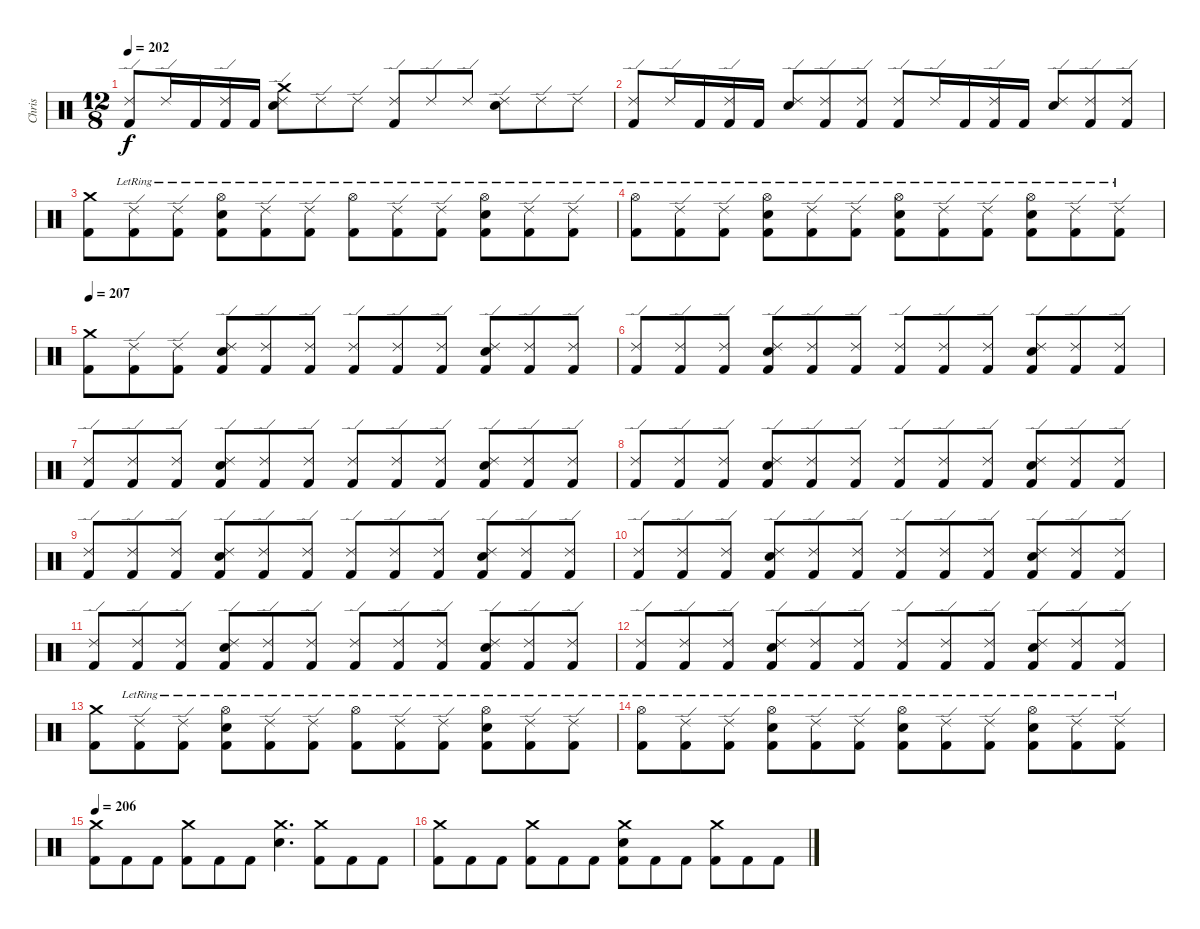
\track ("Chris" "Chris") {instrument percussion}
\staff {score}
\articulation defaults
\ts (12 8)
\tempo 202
\clef neutral
\ks c
("Ride (edge) 2" "Kick (hit) 2").8{dy f} "Ride (edge) 2".16 "Kick (hit) 2".16 ("Ride (edge) 2" "Kick (hit) 2").16 "Kick (hit) 2".16 ("Ride (edge) 2" "Electric Snare (hit)" "Crash medium (hit)").8 "Ride (edge) 2".8 "Ride (edge) 2".8 ("Ride (edge) 2" "Kick (hit) 2").8 "Ride (edge) 2".8 "Ride (edge) 2".8 ("Ride (edge) 2" "Electric Snare (hit)").8 "Ride (edge) 2".8 "Ride (edge) 2".8 |
("Ride (edge) 2" "Kick (hit) 2").8 "Ride (edge) 2".16 "Kick (hit) 2".16 ("Ride (edge) 2" "Kick (hit) 2").16 "Kick (hit) 2".16 ("Ride (edge) 2" "Electric Snare (hit)").8 ("Ride (edge) 2" "Kick (hit) 2").8 ("Ride (edge) 2" "Kick (hit) 2").8 ("Ride (edge) 2" "Kick (hit) 2").8 "Ride (edge) 2".16 "Kick (hit) 2".16 ("Ride (edge) 2" "Kick (hit) 2").16 "Kick (hit) 2".16 ("Ride (edge) 2" "Electric Snare (hit)").8 ("Ride (edge) 2" "Kick (hit) 2").8 ("Ride (edge) 2" "Kick (hit) 2").8 |
("Crash medium (hit)" "Kick (hit) 2").8 ("Ride (edge) 2"{lr} "Kick (hit) 2").8 ("Ride (edge) 2"{lr} "Kick (hit) 2").8 ("Hi-Hat (open)"{lr} "Kick (hit) 2" "Electric Snare (hit)").8 ("Ride (edge) 2"{lr} "Kick (hit) 2").8 ("Ride (edge) 2"{lr} "Kick (hit) 2").8 ("Hi-Hat (open)"{lr} "Kick (hit) 2").8 ("Ride (edge) 2"{lr} "Kick (hit) 2").8 ("Ride (edge) 2"{lr} "Kick (hit) 2").8 ("Hi-Hat (open)"{lr} "Kick (hit) 2" "Electric Snare (hit)").8 ("Ride (edge) 2"{lr} "Kick (hit) 2").8 ("Ride (edge) 2"{lr} "Kick (hit) 2").8 |
("Hi-Hat (open)"{lr} "Kick (hit) 2").8 ("Ride (edge) 2"{lr} "Kick (hit) 2").8 ("Ride (edge) 2"{lr} "Kick (hit) 2").8 ("Hi-Hat (open)"{lr} "Kick (hit) 2" "Electric Snare (hit)").8 ("Ride (edge) 2"{lr} "Kick (hit) 2").8 ("Ride (edge) 2"{lr} "Kick (hit) 2").8 ("Hi-Hat (open)"{lr} "Kick (hit) 2" "Electric Snare (hit)").8 ("Ride (edge) 2"{lr} "Kick (hit) 2").8 ("Ride (edge) 2"{lr} "Kick (hit) 2").8 ("Hi-Hat (open)"{lr} "Kick (hit) 2" "Electric Snare (hit)").8 ("Ride (edge) 2"{lr} "Kick (hit) 2").8 ("Ride (edge) 2"{lr} "Kick (hit) 2").8 |
\tempo 207
("Crash medium (hit)" "Kick (hit) 2").8 ("Ride (edge) 2" "Kick (hit) 2").8 ("Ride (edge) 2" "Kick (hit) 2").8 ("Ride (edge) 2" "Kick (hit) 2" "Electric Snare (hit)").8 ("Ride (edge) 2" "Kick (hit) 2").8 ("Ride (edge) 2" "Kick (hit) 2").8 ("Ride (edge) 2" "Kick (hit) 2").8 ("Ride (edge) 2" "Kick (hit) 2").8 ("Ride (edge) 2" "Kick (hit) 2").8 ("Ride (edge) 2" "Kick (hit) 2" "Electric Snare (hit)").8 ("Ride (edge) 2" "Kick (hit) 2").8 ("Ride (edge) 2" "Kick (hit) 2").8 |
("Ride (edge) 2" "Kick (hit) 2").8 ("Ride (edge) 2" "Kick (hit) 2").8 ("Ride (edge) 2" "Kick (hit) 2").8 ("Ride (edge) 2" "Kick (hit) 2" "Electric Snare (hit)").8 ("Ride (edge) 2" "Kick (hit) 2").8 ("Ride (edge) 2" "Kick (hit) 2").8 ("Ride (edge) 2" "Kick (hit) 2").8 ("Ride (edge) 2" "Kick (hit) 2").8 ("Ride (edge) 2" "Kick (hit) 2").8 ("Ride (edge) 2" "Kick (hit) 2" "Electric Snare (hit)").8 ("Ride (edge) 2" "Kick (hit) 2").8 ("Ride (edge) 2" "Kick (hit) 2").8 |
("Ride (edge) 2" "Kick (hit) 2").8 ("Ride (edge) 2" "Kick (hit) 2").8 ("Ride (edge) 2" "Kick (hit) 2").8 ("Ride (edge) 2" "Kick (hit) 2" "Electric Snare (hit)").8 ("Ride (edge) 2" "Kick (hit) 2").8 ("Ride (edge) 2" "Kick (hit) 2").8 ("Ride (edge) 2" "Kick (hit) 2").8 ("Ride (edge) 2" "Kick (hit) 2").8 ("Ride (edge) 2" "Kick (hit) 2").8 ("Ride (edge) 2" "Kick (hit) 2" "Electric Snare (hit)").8 ("Ride (edge) 2" "Kick (hit) 2").8 ("Ride (edge) 2" "Kick (hit) 2").8 |
("Ride (edge) 2" "Kick (hit) 2").8 ("Ride (edge) 2" "Kick (hit) 2").8 ("Ride (edge) 2" "Kick (hit) 2").8 ("Ride (edge) 2" "Kick (hit) 2" "Electric Snare (hit)").8 ("Ride (edge) 2" "Kick (hit) 2").8 ("Ride (edge) 2" "Kick (hit) 2").8 ("Ride (edge) 2" "Kick (hit) 2").8 ("Ride (edge) 2" "Kick (hit) 2").8 ("Ride (edge) 2" "Kick (hit) 2").8 ("Ride (edge) 2" "Kick (hit) 2" "Electric Snare (hit)").8 ("Ride (edge) 2" "Kick (hit) 2").8 ("Ride (edge) 2" "Kick (hit) 2").8 |
("Ride (edge) 2" "Kick (hit) 2").8 ("Ride (edge) 2" "Kick (hit) 2").8 ("Ride (edge) 2" "Kick (hit) 2").8 ("Ride (edge) 2" "Kick (hit) 2" "Electric Snare (hit)").8 ("Ride (edge) 2" "Kick (hit) 2").8 ("Ride (edge) 2" "Kick (hit) 2").8 ("Ride (edge) 2" "Kick (hit) 2").8 ("Ride (edge) 2" "Kick (hit) 2").8 ("Ride (edge) 2" "Kick (hit) 2").8 ("Ride (edge) 2" "Kick (hit) 2" "Electric Snare (hit)").8 ("Ride (edge) 2" "Kick (hit) 2").8 ("Ride (edge) 2" "Kick (hit) 2").8 |
("Ride (edge) 2" "Kick (hit) 2").8 ("Ride (edge) 2" "Kick (hit) 2").8 ("Ride (edge) 2" "Kick (hit) 2").8 ("Ride (edge) 2" "Kick (hit) 2" "Electric Snare (hit)").8 ("Ride (edge) 2" "Kick (hit) 2").8 ("Ride (edge) 2" "Kick (hit) 2").8 ("Ride (edge) 2" "Kick (hit) 2").8 ("Ride (edge) 2" "Kick (hit) 2").8 ("Ride (edge) 2" "Kick (hit) 2").8 ("Ride (edge) 2" "Kick (hit) 2" "Electric Snare (hit)").8 ("Ride (edge) 2" "Kick (hit) 2").8 ("Ride (edge) 2" "Kick (hit) 2").8 |
("Ride (edge) 2" "Kick (hit) 2").8 ("Ride (edge) 2" "Kick (hit) 2").8 ("Ride (edge) 2" "Kick (hit) 2").8 ("Ride (edge) 2" "Kick (hit) 2" "Electric Snare (hit)").8 ("Ride (edge) 2" "Kick (hit) 2").8 ("Ride (edge) 2" "Kick (hit) 2").8 ("Ride (edge) 2" "Kick (hit) 2").8 ("Ride (edge) 2" "Kick (hit) 2").8 ("Ride (edge) 2" "Kick (hit) 2").8 ("Ride (edge) 2" "Kick (hit) 2" "Electric Snare (hit)").8 ("Ride (edge) 2" "Kick (hit) 2").8 ("Ride (edge) 2" "Kick (hit) 2").8 |
("Ride (edge) 2" "Kick (hit) 2").8 ("Ride (edge) 2" "Kick (hit) 2").8 ("Ride (edge) 2" "Kick (hit) 2").8 ("Ride (edge) 2" "Kick (hit) 2" "Electric Snare (hit)").8 ("Ride (edge) 2" "Kick (hit) 2").8 ("Ride (edge) 2" "Kick (hit) 2").8 ("Ride (edge) 2" "Kick (hit) 2").8 ("Ride (edge) 2" "Kick (hit) 2").8 ("Ride (edge) 2" "Kick (hit) 2").8 ("Ride (edge) 2" "Kick (hit) 2" "Electric Snare (hit)").8 ("Ride (edge) 2" "Kick (hit) 2").8 ("Ride (edge) 2" "Kick (hit) 2").8 |
("Crash medium (hit)" "Kick (hit) 2").8 ("Ride (edge) 2"{lr} "Kick (hit) 2").8 ("Ride (edge) 2"{lr} "Kick (hit) 2").8 ("Hi-Hat (open)"{lr} "Kick (hit) 2" "Electric Snare (hit)").8 ("Ride (edge) 2"{lr} "Kick (hit) 2").8 ("Ride (edge) 2"{lr} "Kick (hit) 2").8 ("Hi-Hat (open)"{lr} "Kick (hit) 2").8 ("Ride (edge) 2"{lr} "Kick (hit) 2").8 ("Ride (edge) 2"{lr} "Kick (hit) 2").8 ("Hi-Hat (open)"{lr} "Kick (hit) 2" "Electric Snare (hit)").8 ("Ride (edge) 2"{lr} "Kick (hit) 2").8 ("Ride (edge) 2"{lr} "Kick (hit) 2").8 |
("Hi-Hat (open)"{lr} "Kick (hit) 2").8 ("Ride (edge) 2"{lr} "Kick (hit) 2").8 ("Ride (edge) 2"{lr} "Kick (hit) 2").8 ("Hi-Hat (open)"{lr} "Kick (hit) 2" "Electric Snare (hit)").8 ("Ride (edge) 2"{lr} "Kick (hit) 2").8 ("Ride (edge) 2"{lr} "Kick (hit) 2").8 ("Hi-Hat (open)"{lr} "Kick (hit) 2" "Electric Snare (hit)").8 ("Ride (edge) 2"{lr} "Kick (hit) 2").8 ("Ride (edge) 2"{lr} "Kick (hit) 2").8 ("Hi-Hat (open)"{lr} "Kick (hit) 2" "Electric Snare (hit)").8 ("Ride (edge) 2"{lr} "Kick (hit) 2").8 ("Ride (edge) 2"{lr} "Kick (hit) 2").8 |
\tempo 206
("Crash medium (hit)" "Kick (hit) 2").8 "Kick (hit) 2".8 "Kick (hit) 2".8 ("Crash medium (hit)" "Kick (hit) 2").8 "Kick (hit) 2".8 "Kick (hit) 2".8 ("Crash medium (hit)" "Electric Snare (hit)").4{d} ("Crash medium (hit)" "Kick (hit) 2").8 "Kick (hit) 2".8 "Kick (hit) 2".8 |
("Crash medium (hit)" "Kick (hit) 2").8 "Kick (hit) 2".8 "Kick (hit) 2".8 ("Crash medium (hit)" "Kick (hit) 2").8 "Kick (hit) 2".8 "Kick (hit) 2".8 ("Crash medium (hit)" "Kick (hit) 2" "Electric Snare (hit)").8 "Kick (hit) 2".8 "Kick (hit) 2".8 ("Crash medium (hit)" "Kick (hit) 2").8 "Kick (hit) 2".8 "Kick (hit) 2".8
